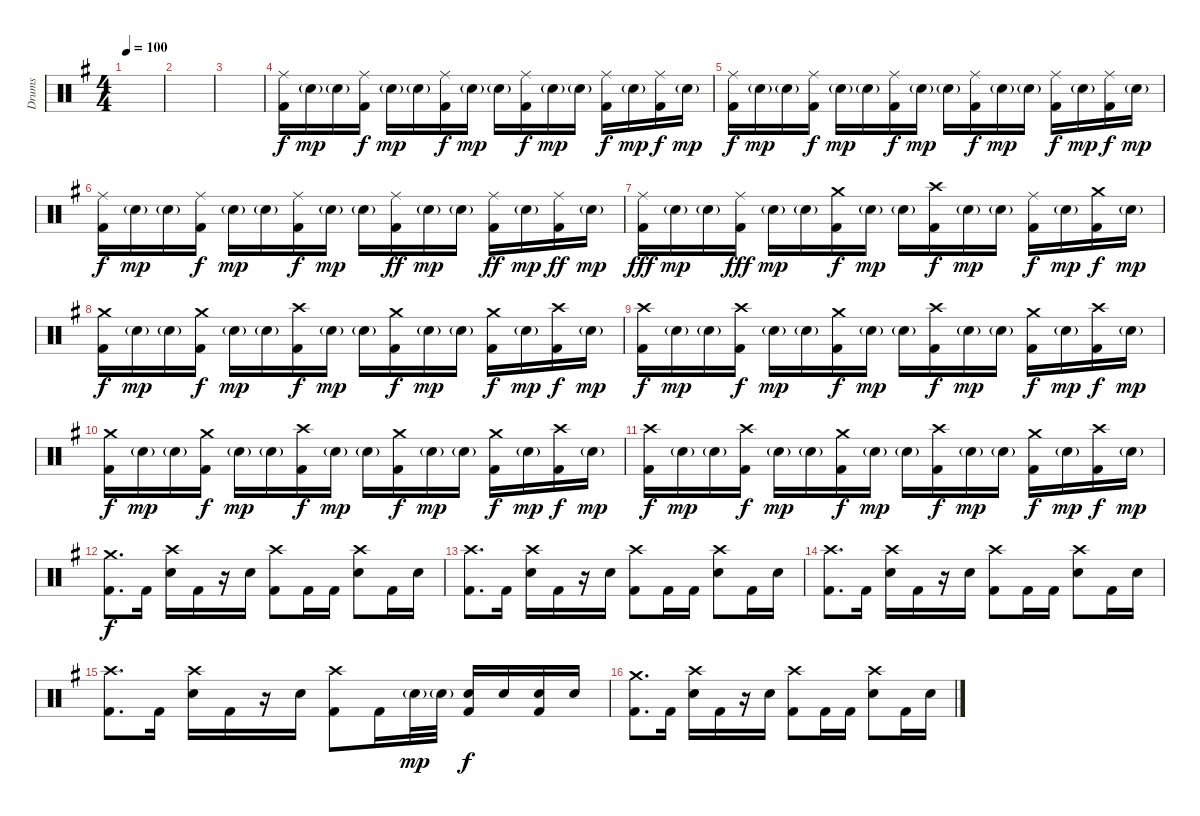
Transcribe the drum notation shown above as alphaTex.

\track ("Drums" "Drums") {instrument percussion}
\staff {score}
\articulation defaults
\ts (4 4)
\tempo 100
\clef neutral
\ks g
|
|
|
("Ride (middle)" "Kick (hit) 2").16 "Electric Snare (hit)"{g}.16{dy mp} "Electric Snare (hit)"{g}.16 ("Ride (middle)" "Kick (hit) 2").16{dy f} "Electric Snare (hit)"{g}.16{dy mp} "Electric Snare (hit)"{g}.16 ("Ride (middle)" "Kick (hit) 2").16{dy f} "Electric Snare (hit)"{g}.16{dy mp} "Electric Snare (hit)"{g}.16 ("Ride (middle)" "Kick (hit) 2").16{dy f} "Electric Snare (hit)"{g}.16{dy mp} "Electric Snare (hit)"{g}.16 ("Ride (middle)" "Kick (hit) 2").16{dy f} "Electric Snare (hit)"{g}.16{dy mp} ("Kick (hit) 2" "Ride (middle)").16{dy f} "Electric Snare (hit)"{g}.16{dy mp} |
("Ride (middle)" "Kick (hit) 2").16{dy f} "Electric Snare (hit)"{g}.16{dy mp} "Electric Snare (hit)"{g}.16 ("Ride (middle)" "Kick (hit) 2").16{dy f} "Electric Snare (hit)"{g}.16{dy mp} "Electric Snare (hit)"{g}.16 ("Ride (middle)" "Kick (hit) 2").16{dy f} "Electric Snare (hit)"{g}.16{dy mp} "Electric Snare (hit)"{g}.16 ("Ride (middle)" "Kick (hit) 2").16{dy f} "Electric Snare (hit)"{g}.16{dy mp} "Electric Snare (hit)"{g}.16 ("Ride (middle)" "Kick (hit) 2").16{dy f} "Electric Snare (hit)"{g}.16{dy mp} ("Kick (hit) 2" "Ride (middle)").16{dy f} "Electric Snare (hit)"{g}.16{dy mp} |
("Ride (middle)" "Kick (hit) 2").16{dy f} "Electric Snare (hit)"{g}.16{dy mp} "Electric Snare (hit)"{g}.16 ("Ride (middle)" "Kick (hit) 2").16{dy f} "Electric Snare (hit)"{g}.16{dy mp} "Electric Snare (hit)"{g}.16 ("Ride (middle)" "Kick (hit) 2").16{dy f} "Electric Snare (hit)"{g}.16{dy mp} "Electric Snare (hit)"{g}.16 ("Ride (middle)" "Kick (hit) 2").16{dy ff} "Electric Snare (hit)"{g}.16{dy mp} "Electric Snare (hit)"{g}.16 ("Ride (middle)" "Kick (hit) 2").16{dy ff} "Electric Snare (hit)"{g}.16{dy mp} ("Kick (hit) 2" "Ride (middle)").16{dy ff} "Electric Snare (hit)"{g}.16{dy mp} |
("Ride (middle)" "Kick (hit) 2").16{dy fff} "Electric Snare (hit)"{g}.16{dy mp} "Electric Snare (hit)"{g}.16 ("Ride (middle)" "Kick (hit) 2").16{dy fff} "Electric Snare (hit)"{g}.16{dy mp} "Electric Snare (hit)"{g}.16 ("Kick (hit) 2" "Crash medium (hit)").16{dy f} "Electric Snare (hit)"{g}.16{dy mp} "Electric Snare (hit)"{g}.16 ("Crash high (hit)" "Kick (hit) 2").16{dy f} "Electric Snare (hit)"{g}.16{dy mp} "Electric Snare (hit)"{g}.16 ("Ride (middle)" "Kick (hit) 2").16{dy f} "Electric Snare (hit)"{g}.16{dy mp} ("Kick (hit) 2" "Crash medium (hit)").16{dy f} "Electric Snare (hit)"{g}.16{dy mp} |
("Crash medium (hit)" "Kick (hit) 2").16{dy f} "Electric Snare (hit)"{g}.16{dy mp} "Electric Snare (hit)"{g}.16 ("Crash medium (hit)" "Kick (hit) 2").16{dy f} "Electric Snare (hit)"{g}.16{dy mp} "Electric Snare (hit)"{g}.16 ("Crash high (hit)" "Kick (hit) 2").16{dy f} "Electric Snare (hit)"{g}.16{dy mp} "Electric Snare (hit)"{g}.16 ("Crash medium (hit)" "Kick (hit) 2").16{dy f} "Electric Snare (hit)"{g}.16{dy mp} "Electric Snare (hit)"{g}.16 ("Crash medium (hit)" "Kick (hit) 2").16{dy f} "Electric Snare (hit)"{g}.16{dy mp} ("Kick (hit) 2" "Crash high (hit)").16{dy f} "Electric Snare (hit)"{g}.16{dy mp} |
("Crash high (hit)" "Kick (hit) 2").16{dy f} "Electric Snare (hit)"{g}.16{dy mp} "Electric Snare (hit)"{g}.16 ("Crash high (hit)" "Kick (hit) 2").16{dy f} "Electric Snare (hit)"{g}.16{dy mp} "Electric Snare (hit)"{g}.16 ("Crash medium (hit)" "Kick (hit) 2").16{dy f} "Electric Snare (hit)"{g}.16{dy mp} "Electric Snare (hit)"{g}.16 ("Crash high (hit)" "Kick (hit) 2").16{dy f} "Electric Snare (hit)"{g}.16{dy mp} "Electric Snare (hit)"{g}.16 ("Crash medium (hit)" "Kick (hit) 2").16{dy f} "Electric Snare (hit)"{g}.16{dy mp} ("Kick (hit) 2" "Crash high (hit)").16{dy f} "Electric Snare (hit)"{g}.16{dy mp} |
("Crash medium (hit)" "Kick (hit) 2").16{dy f} "Electric Snare (hit)"{g}.16{dy mp} "Electric Snare (hit)"{g}.16 ("Crash medium (hit)" "Kick (hit) 2").16{dy f} "Electric Snare (hit)"{g}.16{dy mp} "Electric Snare (hit)"{g}.16 ("Crash high (hit)" "Kick (hit) 2").16{dy f} "Electric Snare (hit)"{g}.16{dy mp} "Electric Snare (hit)"{g}.16 ("Crash medium (hit)" "Kick (hit) 2").16{dy f} "Electric Snare (hit)"{g}.16{dy mp} "Electric Snare (hit)"{g}.16 ("Crash medium (hit)" "Kick (hit) 2").16{dy f} "Electric Snare (hit)"{g}.16{dy mp} ("Kick (hit) 2" "Crash high (hit)").16{dy f} "Electric Snare (hit)"{g}.16{dy mp} |
("Crash high (hit)" "Kick (hit) 2").16{dy f} "Electric Snare (hit)"{g}.16{dy mp} "Electric Snare (hit)"{g}.16 ("Crash high (hit)" "Kick (hit) 2").16{dy f} "Electric Snare (hit)"{g}.16{dy mp} "Electric Snare (hit)"{g}.16 ("Crash medium (hit)" "Kick (hit) 2").16{dy f} "Electric Snare (hit)"{g}.16{dy mp} "Electric Snare (hit)"{g}.16 ("Crash high (hit)" "Kick (hit) 2").16{dy f} "Electric Snare (hit)"{g}.16{dy mp} "Electric Snare (hit)"{g}.16 ("Crash medium (hit)" "Kick (hit) 2").16{dy f} "Electric Snare (hit)"{g}.16{dy mp} ("Kick (hit) 2" "Crash high (hit)").16{dy f} "Electric Snare (hit)"{g}.16{dy mp} |
("Kick (hit) 2" "Crash medium (hit)").8{d dy f} "Kick (hit) 2".16 ("Electric Snare (hit)" "Crash high (hit)").16 "Kick (hit) 2".16 r.16 "Electric Snare (hit)".16 ("Kick (hit) 2" "Crash high (hit)").8 "Kick (hit) 2".16 "Kick (hit) 2".16 ("Electric Snare (hit)" "Crash high (hit)").8 "Kick (hit) 2".16 "Electric Snare (hit)".16 |
("Kick (hit) 2" "Crash high (hit)").8{d} "Kick (hit) 2".16 ("Electric Snare (hit)" "Crash high (hit)").16 "Kick (hit) 2".16 r.16 "Electric Snare (hit)".16 ("Kick (hit) 2" "Crash high (hit)").8 "Kick (hit) 2".16 "Kick (hit) 2".16 ("Electric Snare (hit)" "Crash high (hit)").8 "Kick (hit) 2".16 "Electric Snare (hit)".16 |
("Kick (hit) 2" "Crash high (hit)").8{d} "Kick (hit) 2".16 ("Electric Snare (hit)" "Crash high (hit)").16 "Kick (hit) 2".16 r.16 "Electric Snare (hit)".16 ("Kick (hit) 2" "Crash high (hit)").8 "Kick (hit) 2".16 "Kick (hit) 2".16 ("Electric Snare (hit)" "Crash high (hit)").8 "Kick (hit) 2".16 "Electric Snare (hit)".16 |
("Kick (hit) 2" "Crash high (hit)").8{d} "Kick (hit) 2".16 ("Electric Snare (hit)" "Crash high (hit)").16 "Kick (hit) 2".16 r.16 "Electric Snare (hit)".16 ("Kick (hit) 2" "Crash high (hit)").8 "Kick (hit) 2".16 "Electric Snare (hit)"{g}.32{dy mp} "Electric Snare (hit)"{g}.32 ("Kick (hit) 2" "Electric Snare (hit)").16{dy f} "Electric Snare (hit)".16 ("Kick (hit) 2" "Electric Snare (hit)").16 "Electric Snare (hit)".16 |
("Kick (hit) 2" "Crash medium (hit)").8{d} "Kick (hit) 2".16 ("Electric Snare (hit)" "Crash high (hit)").16 "Kick (hit) 2".16 r.16 "Electric Snare (hit)".16 ("Kick (hit) 2" "Crash high (hit)").8 "Kick (hit) 2".16 "Kick (hit) 2".16 ("Electric Snare (hit)" "Crash high (hit)").8 "Kick (hit) 2".16 "Electric Snare (hit)".16
